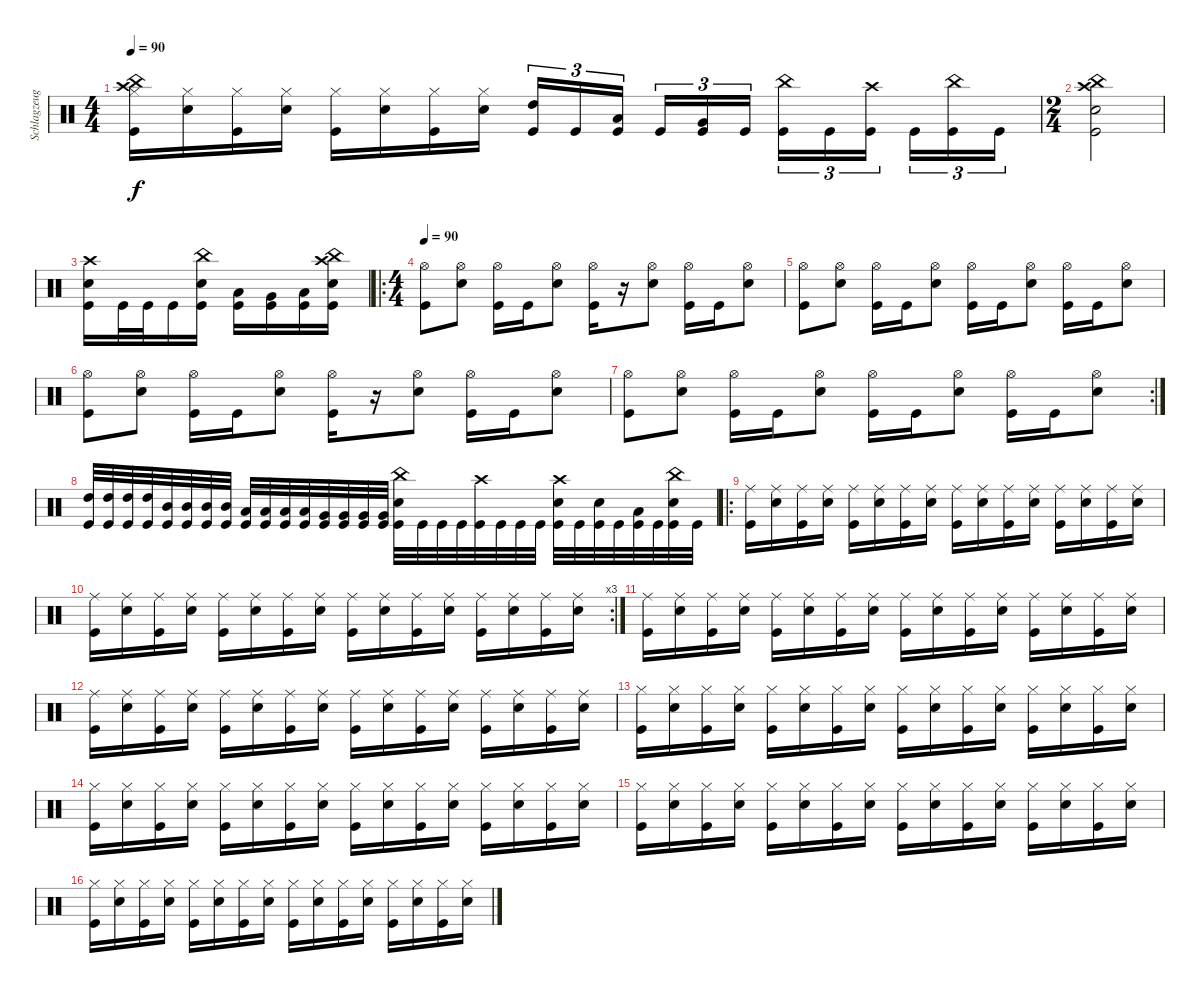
\track ("Schlagzeug" "Schlagzeug") {instrument percussion}
\staff {score}
\articulation defaults
\ts (4 4)
\tempo 90
\clef neutral
\ks c
("Crash high (hit)" "China (hit)" "Hi-Hat (closed)" "Kick (hit)").16{dy f} ("Hi-Hat (closed)" "Snare (hit) 2").16 ("Hi-Hat (closed)" "Kick (hit)").16 ("Hi-Hat (closed)" "Snare (hit) 2").16 ("Hi-Hat (closed)" "Kick (hit)").16 ("Hi-Hat (closed)" "Snare (hit) 2").16 ("Hi-Hat (closed)" "Kick (hit)").16 ("Hi-Hat (closed)" "Snare (hit) 2").16 ("High Tom (hit)" "Kick (hit)").16{tu (3 2)} "Kick (hit)".16{tu (3 2)} ("Low Tom (hit)" "Kick (hit)").16{tu (3 2) beam splitsecondary} "Kick (hit)".16{tu (3 2)} ("Very Low Tom (hit)" "Kick (hit)").16{tu (3 2)} "Kick (hit)".16{tu (3 2)} ("China (hit)" "Kick (hit)").16{tu (3 2)} "Kick (hit)".16{tu (3 2)} ("Crash high (hit)" "Kick (hit)").16{tu (3 2) beam splitsecondary} "Kick (hit)".16{tu (3 2)} ("China (hit)" "Kick (hit)").16{tu (3 2)} "Kick (hit)".16{tu (3 2)} |
\ts (2 4)
("Crash high (hit)" "China (hit)" "Snare (hit) 2" "Kick (hit)").2 |
("Crash high (hit)" "Snare (hit) 2" "Kick (hit)").16 "Kick (hit)".32 "Kick (hit)".32 "Kick (hit)".16 ("China (hit)" "Snare (hit) 2" "Kick (hit)").16 ("Low Tom (hit)" "Kick (hit)").16 ("Very Low Tom (hit)" "Kick (hit)").16 ("Low Floor Tom (hit)" "Kick (hit)").16 ("China (hit)" "Crash high (hit)" "Snare (hit) 2" "Kick (hit)").16 |
\ro
\ts (4 4)
\tempo 90
("Hi-Hat (open)" "Kick (hit)").8 ("Hi-Hat (open)" "Snare (hit) 2").8 ("Hi-Hat (open)" "Kick (hit)").16 "Kick (hit)".16 ("Hi-Hat (open)" "Snare (hit) 2").8 ("Hi-Hat (open)" "Kick (hit)").16 r.16 ("Hi-Hat (open)" "Snare (hit) 2").8 ("Hi-Hat (open)" "Kick (hit)").16 "Kick (hit)".16 ("Hi-Hat (open)" "Snare (hit) 2").8 |
("Hi-Hat (open)" "Kick (hit)").8 ("Hi-Hat (open)" "Snare (hit) 2").8 ("Hi-Hat (open)" "Kick (hit)").16 "Kick (hit)".16 ("Hi-Hat (open)" "Snare (hit) 2").8 ("Hi-Hat (open)" "Kick (hit)").16 "Kick (hit)".16 ("Hi-Hat (open)" "Snare (hit) 2").8 ("Hi-Hat (open)" "Kick (hit)").16 "Kick (hit)".16 ("Hi-Hat (open)" "Snare (hit) 2").8 |
("Hi-Hat (open)" "Kick (hit)").8 ("Hi-Hat (open)" "Snare (hit) 2").8 ("Hi-Hat (open)" "Kick (hit)").16 "Kick (hit)".16 ("Hi-Hat (open)" "Snare (hit) 2").8 ("Hi-Hat (open)" "Kick (hit)").16 r.16 ("Hi-Hat (open)" "Snare (hit) 2").8 ("Hi-Hat (open)" "Kick (hit)").16 "Kick (hit)".16 ("Hi-Hat (open)" "Snare (hit) 2").8 |
\rc 2
("Hi-Hat (open)" "Kick (hit)").8 ("Hi-Hat (open)" "Snare (hit) 2").8 ("Hi-Hat (open)" "Kick (hit)").16 "Kick (hit)".16 ("Hi-Hat (open)" "Snare (hit) 2").8 ("Hi-Hat (open)" "Kick (hit)").16 "Kick (hit)".16 ("Hi-Hat (open)" "Snare (hit) 2").8 ("Hi-Hat (open)" "Kick (hit)").16 "Kick (hit)".16 ("Hi-Hat (open)" "Snare (hit) 2").8 |
("High Tom (hit)" "Kick (hit)").32 ("High Tom (hit)" "Kick (hit)").32 ("High Tom (hit)" "Kick (hit)").32 ("High Tom (hit)" "Kick (hit)").32 ("Mid Tom (hit)" "Kick (hit)").32 ("Mid Tom (hit)" "Kick (hit)").32 ("Mid Tom (hit)" "Kick (hit)").32 ("Mid Tom (hit)" "Kick (hit)").32 ("Low Tom (hit)" "Kick (hit)").32 ("Low Tom (hit)" "Kick (hit)").32 ("Low Tom (hit)" "Kick (hit)").32 ("Low Tom (hit)" "Kick (hit)").32 ("Very Low Tom (hit)" "Kick (hit)").32 ("Very Low Tom (hit)" "Kick (hit)").32 ("Very Low Tom (hit)" "Kick (hit)").32 ("Very Low Tom (hit)" "Kick (hit)").32 ("China (hit)" "Snare (hit) 2" "Kick (hit)").32 "Kick (hit)".32 "Kick (hit)".32 "Kick (hit)".32 ("Crash high (hit)" "Kick (hit)").32 "Kick (hit)".32 "Kick (hit)".32 "Kick (hit)".32 ("Crash high (hit)" "Snare (hit) 2" "Kick (hit)").32 "Kick (hit)".32 ("Snare (hit) 2" "Kick (hit)").32 "Kick (hit)".32 ("Low Floor Tom (hit)" "Kick (hit)").32 "Kick (hit)".32 ("China (hit)" "Snare (hit) 2" "Kick (hit)").32 "Kick (hit)".32 |
\ro
("Ride (middle)" "Kick (hit)").16 ("Ride (middle)" "Snare (hit) 2").16 ("Ride (middle)" "Kick (hit)").16 ("Ride (middle)" "Snare (hit) 2").16 ("Ride (middle)" "Kick (hit)").16 ("Ride (middle)" "Snare (hit) 2").16 ("Ride (middle)" "Kick (hit)").16 ("Ride (middle)" "Snare (hit) 2").16 ("Ride (middle)" "Kick (hit)").16 ("Ride (middle)" "Snare (hit) 2").16 ("Ride (middle)" "Kick (hit)").16 ("Ride (middle)" "Snare (hit) 2").16 ("Ride (middle)" "Kick (hit)").16 ("Ride (middle)" "Snare (hit) 2").16 ("Ride (middle)" "Kick (hit)").16 ("Ride (middle)" "Snare (hit) 2").16 |
\rc 3
("Ride (middle)" "Kick (hit)").16 ("Ride (middle)" "Snare (hit) 2").16 ("Ride (middle)" "Kick (hit)").16 ("Ride (middle)" "Snare (hit) 2").16 ("Ride (middle)" "Kick (hit)").16 ("Ride (middle)" "Snare (hit) 2").16 ("Ride (middle)" "Kick (hit)").16 ("Ride (middle)" "Snare (hit) 2").16 ("Ride (middle)" "Kick (hit)").16 ("Ride (middle)" "Snare (hit) 2").16 ("Ride (middle)" "Kick (hit)").16 ("Ride (middle)" "Snare (hit) 2").16 ("Ride (middle)" "Kick (hit)").16 ("Ride (middle)" "Snare (hit) 2").16 ("Ride (middle)" "Kick (hit)").16 ("Ride (middle)" "Snare (hit) 2").16 |
("Ride (middle)" "Kick (hit)").16 ("Ride (middle)" "Snare (hit) 2").16 ("Ride (middle)" "Kick (hit)").16 ("Ride (middle)" "Snare (hit) 2").16 ("Ride (middle)" "Kick (hit)").16 ("Ride (middle)" "Snare (hit) 2").16 ("Ride (middle)" "Kick (hit)").16 ("Ride (middle)" "Snare (hit) 2").16 ("Ride (middle)" "Kick (hit)").16 ("Ride (middle)" "Snare (hit) 2").16 ("Ride (middle)" "Kick (hit)").16 ("Ride (middle)" "Snare (hit) 2").16 ("Ride (middle)" "Kick (hit)").16 ("Ride (middle)" "Snare (hit) 2").16 ("Ride (middle)" "Kick (hit)").16 ("Ride (middle)" "Snare (hit) 2").16 |
("Ride (middle)" "Kick (hit)").16 ("Ride (middle)" "Snare (hit) 2").16 ("Ride (middle)" "Kick (hit)").16 ("Ride (middle)" "Snare (hit) 2").16 ("Ride (middle)" "Kick (hit)").16 ("Ride (middle)" "Snare (hit) 2").16 ("Ride (middle)" "Kick (hit)").16 ("Ride (middle)" "Snare (hit) 2").16 ("Ride (middle)" "Kick (hit)").16 ("Ride (middle)" "Snare (hit) 2").16 ("Ride (middle)" "Kick (hit)").16 ("Ride (middle)" "Snare (hit) 2").16 ("Ride (middle)" "Kick (hit)").16 ("Ride (middle)" "Snare (hit) 2").16 ("Ride (middle)" "Kick (hit)").16 ("Ride (middle)" "Snare (hit) 2").16 |
("Hi-Hat (closed)" "Kick (hit)").16 ("Hi-Hat (closed)" "Snare (hit) 2").16 ("Hi-Hat (closed)" "Kick (hit)").16 ("Hi-Hat (closed)" "Snare (hit) 2").16 ("Hi-Hat (closed)" "Kick (hit)").16 ("Hi-Hat (closed)" "Snare (hit) 2").16 ("Hi-Hat (closed)" "Kick (hit)").16 ("Hi-Hat (closed)" "Snare (hit) 2").16 ("Hi-Hat (closed)" "Kick (hit)").16 ("Hi-Hat (closed)" "Snare (hit) 2").16 ("Hi-Hat (closed)" "Kick (hit)").16 ("Hi-Hat (closed)" "Snare (hit) 2").16 ("Hi-Hat (closed)" "Kick (hit)").16 ("Hi-Hat (closed)" "Snare (hit) 2").16 ("Hi-Hat (closed)" "Kick (hit)").16 ("Hi-Hat (closed)" "Snare (hit) 2").16 |
("Hi-Hat (closed)" "Kick (hit)").16 ("Hi-Hat (closed)" "Snare (hit) 2").16 ("Hi-Hat (closed)" "Kick (hit)").16 ("Hi-Hat (closed)" "Snare (hit) 2").16 ("Hi-Hat (closed)" "Kick (hit)").16 ("Hi-Hat (closed)" "Snare (hit) 2").16 ("Hi-Hat (closed)" "Kick (hit)").16 ("Hi-Hat (closed)" "Snare (hit) 2").16 ("Hi-Hat (closed)" "Kick (hit)").16 ("Hi-Hat (closed)" "Snare (hit) 2").16 ("Hi-Hat (closed)" "Kick (hit)").16 ("Hi-Hat (closed)" "Snare (hit) 2").16 ("Hi-Hat (closed)" "Kick (hit)").16 ("Hi-Hat (closed)" "Snare (hit) 2").16 ("Hi-Hat (closed)" "Kick (hit)").16 ("Hi-Hat (closed)" "Snare (hit) 2").16 |
("Hi-Hat (closed)" "Kick (hit)").16 ("Hi-Hat (closed)" "Snare (hit) 2").16 ("Hi-Hat (closed)" "Kick (hit)").16 ("Hi-Hat (closed)" "Snare (hit) 2").16 ("Hi-Hat (closed)" "Kick (hit)").16 ("Hi-Hat (closed)" "Snare (hit) 2").16 ("Hi-Hat (closed)" "Kick (hit)").16 ("Hi-Hat (closed)" "Snare (hit) 2").16 ("Hi-Hat (closed)" "Kick (hit)").16 ("Hi-Hat (closed)" "Snare (hit) 2").16 ("Hi-Hat (closed)" "Kick (hit)").16 ("Hi-Hat (closed)" "Snare (hit) 2").16 ("Hi-Hat (closed)" "Kick (hit)").16 ("Hi-Hat (closed)" "Snare (hit) 2").16 ("Hi-Hat (closed)" "Kick (hit)").16 ("Hi-Hat (closed)" "Snare (hit) 2").16 |
("Hi-Hat (closed)" "Kick (hit)").16 ("Hi-Hat (closed)" "Snare (hit) 2").16 ("Hi-Hat (closed)" "Kick (hit)").16 ("Hi-Hat (closed)" "Snare (hit) 2").16 ("Hi-Hat (closed)" "Kick (hit)").16 ("Hi-Hat (closed)" "Snare (hit) 2").16 ("Hi-Hat (closed)" "Kick (hit)").16 ("Hi-Hat (closed)" "Snare (hit) 2").16 ("Hi-Hat (closed)" "Kick (hit)").16 ("Hi-Hat (closed)" "Snare (hit) 2").16 ("Hi-Hat (closed)" "Kick (hit)").16 ("Hi-Hat (closed)" "Snare (hit) 2").16 ("Hi-Hat (closed)" "Kick (hit)").16 ("Hi-Hat (closed)" "Snare (hit) 2").16 ("Hi-Hat (closed)" "Kick (hit)").16 ("Hi-Hat (closed)" "Snare (hit) 2").16
